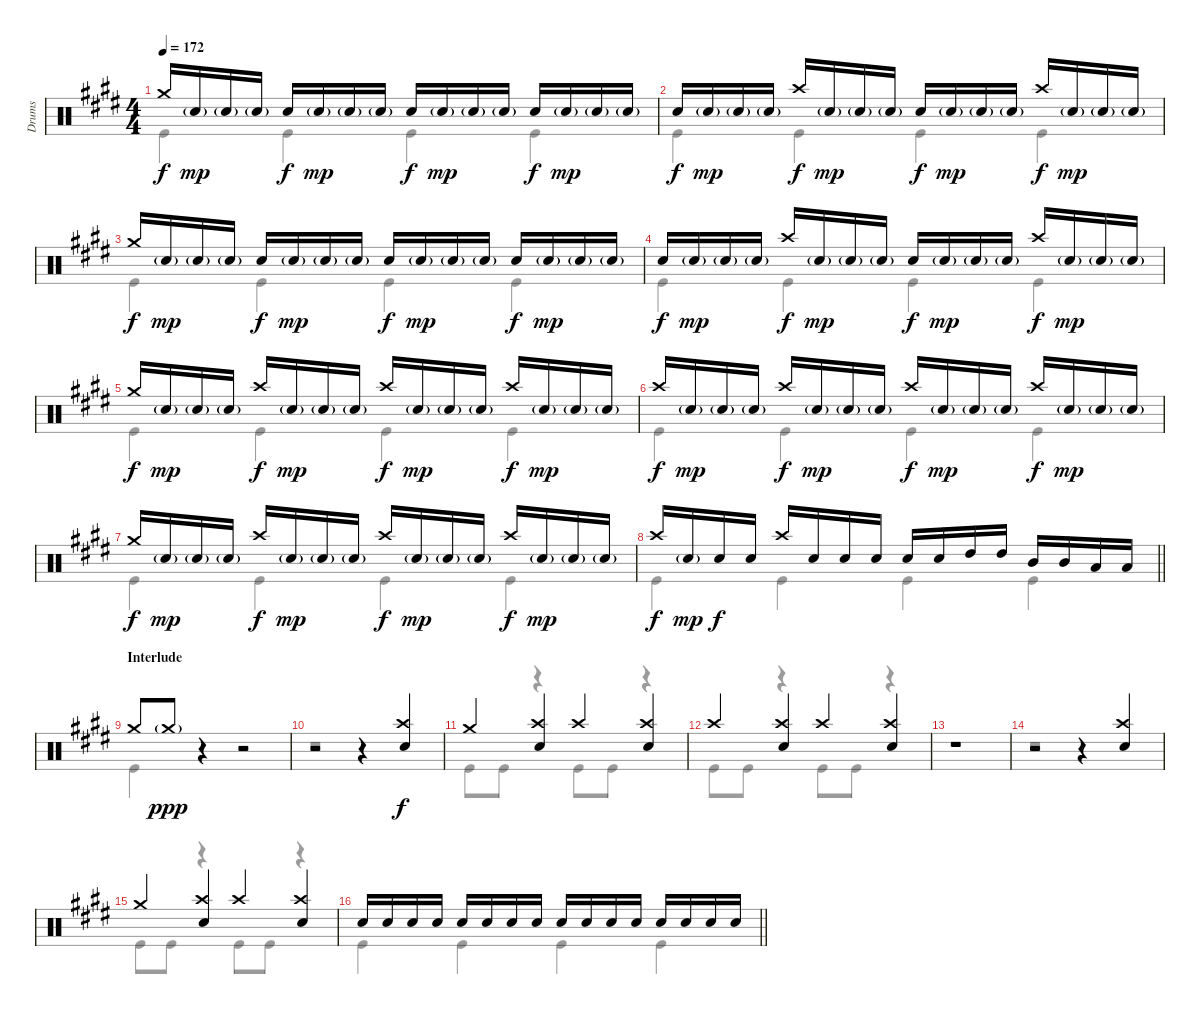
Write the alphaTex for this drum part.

\track ("Drums" "Drums") {instrument percussion}
\staff {score}
\articulation defaults
\voice
\ts (4 4)
\tempo 172
\clef neutral
\ks e "Crash medium (hit)".16{dy f} "Electric Snare (hit)"{g}.16{dy mp} "Electric Snare (hit)"{g}.16 "Electric Snare (hit)"{g}.16 "Electric Snare (hit)".16{dy f} "Electric Snare (hit)"{g}.16{dy mp} "Electric Snare (hit)"{g}.16 "Electric Snare (hit)"{g}.16 "Electric Snare (hit)".16{dy f} "Electric Snare (hit)"{g}.16{dy mp} "Electric Snare (hit)"{g}.16 "Electric Snare (hit)"{g}.16 "Electric Snare (hit)".16{dy f} "Electric Snare (hit)"{g}.16{dy mp} "Electric Snare (hit)"{g}.16 "Electric Snare (hit)"{g}.16
|
"Electric Snare (hit)".16{dy f} "Electric Snare (hit)"{g}.16{dy mp} "Electric Snare (hit)"{g}.16 "Electric Snare (hit)"{g}.16 "Crash high (hit)".16{dy f} "Electric Snare (hit)"{g}.16{dy mp} "Electric Snare (hit)"{g}.16 "Electric Snare (hit)"{g}.16 "Electric Snare (hit)".16{dy f} "Electric Snare (hit)"{g}.16{dy mp} "Electric Snare (hit)"{g}.16 "Electric Snare (hit)"{g}.16 "Crash high (hit)".16{dy f} "Electric Snare (hit)"{g}.16{dy mp} "Electric Snare (hit)"{g}.16 "Electric Snare (hit)"{g}.16 |
"Crash medium (hit)".16{dy f} "Electric Snare (hit)"{g}.16{dy mp} "Electric Snare (hit)"{g}.16 "Electric Snare (hit)"{g}.16 "Electric Snare (hit)".16{dy f} "Electric Snare (hit)"{g}.16{dy mp} "Electric Snare (hit)"{g}.16 "Electric Snare (hit)"{g}.16 "Electric Snare (hit)".16{dy f} "Electric Snare (hit)"{g}.16{dy mp} "Electric Snare (hit)"{g}.16 "Electric Snare (hit)"{g}.16 "Electric Snare (hit)".16{dy f} "Electric Snare (hit)"{g}.16{dy mp} "Electric Snare (hit)"{g}.16 "Electric Snare (hit)"{g}.16 |
"Electric Snare (hit)".16{dy f} "Electric Snare (hit)"{g}.16{dy mp} "Electric Snare (hit)"{g}.16 "Electric Snare (hit)"{g}.16 "Crash high (hit)".16{dy f} "Electric Snare (hit)"{g}.16{dy mp} "Electric Snare (hit)"{g}.16 "Electric Snare (hit)"{g}.16 "Electric Snare (hit)".16{dy f} "Electric Snare (hit)"{g}.16{dy mp} "Electric Snare (hit)"{g}.16 "Electric Snare (hit)"{g}.16 "Crash high (hit)".16{dy f} "Electric Snare (hit)"{g}.16{dy mp} "Electric Snare (hit)"{g}.16 "Electric Snare (hit)"{g}.16 |
"Crash medium (hit)".16{dy f} "Electric Snare (hit)"{g}.16{dy mp} "Electric Snare (hit)"{g}.16 "Electric Snare (hit)"{g}.16 "Crash high (hit)".16{dy f} "Electric Snare (hit)"{g}.16{dy mp} "Electric Snare (hit)"{g}.16 "Electric Snare (hit)"{g}.16 "Crash high (hit)".16{dy f} "Electric Snare (hit)"{g}.16{dy mp} "Electric Snare (hit)"{g}.16 "Electric Snare (hit)"{g}.16 "Crash high (hit)".16{dy f} "Electric Snare (hit)"{g}.16{dy mp} "Electric Snare (hit)"{g}.16 "Electric Snare (hit)"{g}.16 |
"Crash high (hit)".16{dy f} "Electric Snare (hit)"{g}.16{dy mp} "Electric Snare (hit)"{g}.16 "Electric Snare (hit)"{g}.16 "Crash high (hit)".16{dy f} "Electric Snare (hit)"{g}.16{dy mp} "Electric Snare (hit)"{g}.16 "Electric Snare (hit)"{g}.16 "Crash high (hit)".16{dy f} "Electric Snare (hit)"{g}.16{dy mp} "Electric Snare (hit)"{g}.16 "Electric Snare (hit)"{g}.16 "Crash high (hit)".16{dy f} "Electric Snare (hit)"{g}.16{dy mp} "Electric Snare (hit)"{g}.16 "Electric Snare (hit)"{g}.16 |
"Crash medium (hit)".16{dy f} "Electric Snare (hit)"{g}.16{dy mp} "Electric Snare (hit)"{g}.16 "Electric Snare (hit)"{g}.16 "Crash high (hit)".16{dy f} "Electric Snare (hit)"{g}.16{dy mp} "Electric Snare (hit)"{g}.16 "Electric Snare (hit)"{g}.16 "Crash high (hit)".16{dy f} "Electric Snare (hit)"{g}.16{dy mp} "Electric Snare (hit)"{g}.16 "Electric Snare (hit)"{g}.16 "Crash high (hit)".16{dy f} "Electric Snare (hit)"{g}.16{dy mp} "Electric Snare (hit)"{g}.16 "Electric Snare (hit)"{g}.16 |
\barLineRight lightlight "Crash high (hit)".16{dy f} "Electric Snare (hit)"{g}.16{dy mp} "Electric Snare (hit)".16{dy f} "Electric Snare (hit)".16 "Crash high (hit)".16 "Electric Snare (hit)".16 "Electric Snare (hit)".16 "Electric Snare (hit)".16 "Electric Snare (hit)".16 "Electric Snare (hit)".16 "High Tom (hit)".16 "High Tom (hit)".16 "Mid Tom (hit)".16 "Mid Tom (hit)".16 "Low Tom (hit)".16 "Low Tom (hit)".16
|
\section ("" "Interlude")
"Crash medium (hit)".8 "Crash medium (hit)"{g}.8{dy ppp} r.4 r.2 |
r.2 r.4 ("Crash high (hit)" "Electric Snare (hit)").4{dy f} |
"Crash medium (hit)".4 ("Crash high (hit)" "Electric Snare (hit)").4 "Crash high (hit)".4 ("Crash high (hit)" "Electric Snare (hit)").4 |
"Crash high (hit)".4 ("Crash high (hit)" "Electric Snare (hit)").4 "Crash high (hit)".4 ("Crash high (hit)" "Electric Snare (hit)").4 |
r.1 |
r.2 r.4 ("Crash high (hit)" "Electric Snare (hit)").4 |
"Crash medium (hit)".4 ("Crash high (hit)" "Electric Snare (hit)").4 "Crash high (hit)".4 ("Crash high (hit)" "Electric Snare (hit)").4 |
\barLineRight lightlight "Electric Snare (hit)".16 "Electric Snare (hit)".16 "Electric Snare (hit)".16 "Electric Snare (hit)".16 "Electric Snare (hit)".16 "Electric Snare (hit)".16 "Electric Snare (hit)".16 "Electric Snare (hit)".16 "Electric Snare (hit)".16 "Electric Snare (hit)".16 "Electric Snare (hit)".16 "Electric Snare (hit)".16 "Electric Snare (hit)".16 "Electric Snare (hit)".16 "Electric Snare (hit)".16 "Electric Snare (hit)".16
\voice
\clef neutral
\ottava regular
\simile none
\ks e "Kick (hit)".4{dy f} "Kick (hit)".4 "Kick (hit)".4 "Kick (hit)".4
|
"Kick (hit)".4 "Kick (hit)".4 "Kick (hit)".4 "Kick (hit)".4 |
"Kick (hit)".4 "Kick (hit)".4 "Kick (hit)".4 "Kick (hit)".4 |
"Kick (hit)".4 "Kick (hit)".4 "Kick (hit)".4 "Kick (hit)".4 |
"Kick (hit)".4 "Kick (hit)".4 "Kick (hit)".4 "Kick (hit)".4 |
"Kick (hit)".4 "Kick (hit)".4 "Kick (hit)".4 "Kick (hit)".4 |
"Kick (hit)".4 "Kick (hit)".4 "Kick (hit)".4 "Kick (hit)".4 |
\barLineRight lightlight "Kick (hit)".4 "Kick (hit)".4 "Kick (hit)".4 "Kick (hit)".4
|
"Kick (hit)".4 r.4 r.2 |
r.1 |
"Kick (hit)".8 "Kick (hit)".8 r.4 "Kick (hit)".8 "Kick (hit)".8 r.4 |
"Kick (hit)".8 "Kick (hit)".8 r.4 "Kick (hit)".8 "Kick (hit)".8 r.4 |
r.1 |
r.1 |
"Kick (hit)".8 "Kick (hit)".8 r.4 "Kick (hit)".8 "Kick (hit)".8 r.4 |
\barLineRight lightlight "Kick (hit)".4 "Kick (hit)".4 "Kick (hit)".4 "Kick (hit)".4
